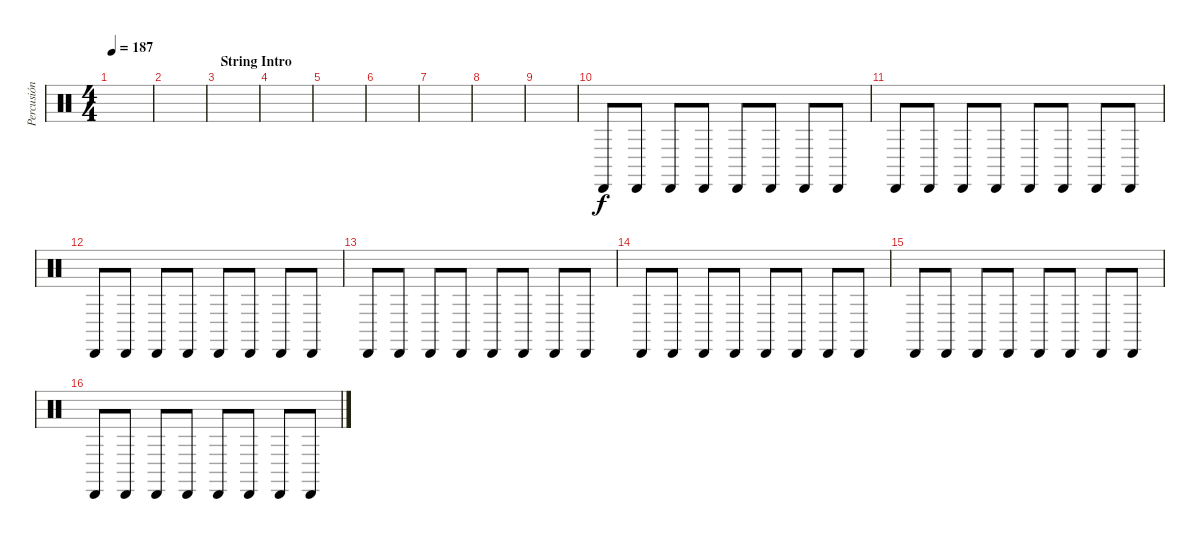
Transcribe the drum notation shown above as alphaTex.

\track ("Percusión" "Percusión") {instrument percussion}
\staff {score}
\articulation defaults
\ts (4 4)
\tempo 187
\clef neutral
\ks c
|
|
\section ("" "String Intro")
|
|
|
|
|
|
|
"Cabasa (hit)".8 "Cabasa (hit)".8 "Cabasa (hit)".8 "Cabasa (hit)".8 "Cabasa (hit)".8 "Cabasa (hit)".8 "Cabasa (hit)".8 "Cabasa (hit)".8 |
"Cabasa (hit)".8 "Cabasa (hit)".8 "Cabasa (hit)".8 "Cabasa (hit)".8 "Cabasa (hit)".8 "Cabasa (hit)".8 "Cabasa (hit)".8 "Cabasa (hit)".8 |
"Cabasa (hit)".8 "Cabasa (hit)".8 "Cabasa (hit)".8 "Cabasa (hit)".8 "Cabasa (hit)".8 "Cabasa (hit)".8 "Cabasa (hit)".8 "Cabasa (hit)".8 |
"Cabasa (hit)".8 "Cabasa (hit)".8 "Cabasa (hit)".8 "Cabasa (hit)".8 "Cabasa (hit)".8 "Cabasa (hit)".8 "Cabasa (hit)".8 "Cabasa (hit)".8 |
"Cabasa (hit)".8 "Cabasa (hit)".8 "Cabasa (hit)".8 "Cabasa (hit)".8 "Cabasa (hit)".8 "Cabasa (hit)".8 "Cabasa (hit)".8 "Cabasa (hit)".8 |
"Cabasa (hit)".8 "Cabasa (hit)".8 "Cabasa (hit)".8 "Cabasa (hit)".8 "Cabasa (hit)".8 "Cabasa (hit)".8 "Cabasa (hit)".8 "Cabasa (hit)".8 |
"Cabasa (hit)".8 "Cabasa (hit)".8 "Cabasa (hit)".8 "Cabasa (hit)".8 "Cabasa (hit)".8 "Cabasa (hit)".8 "Cabasa (hit)".8 "Cabasa (hit)".8
